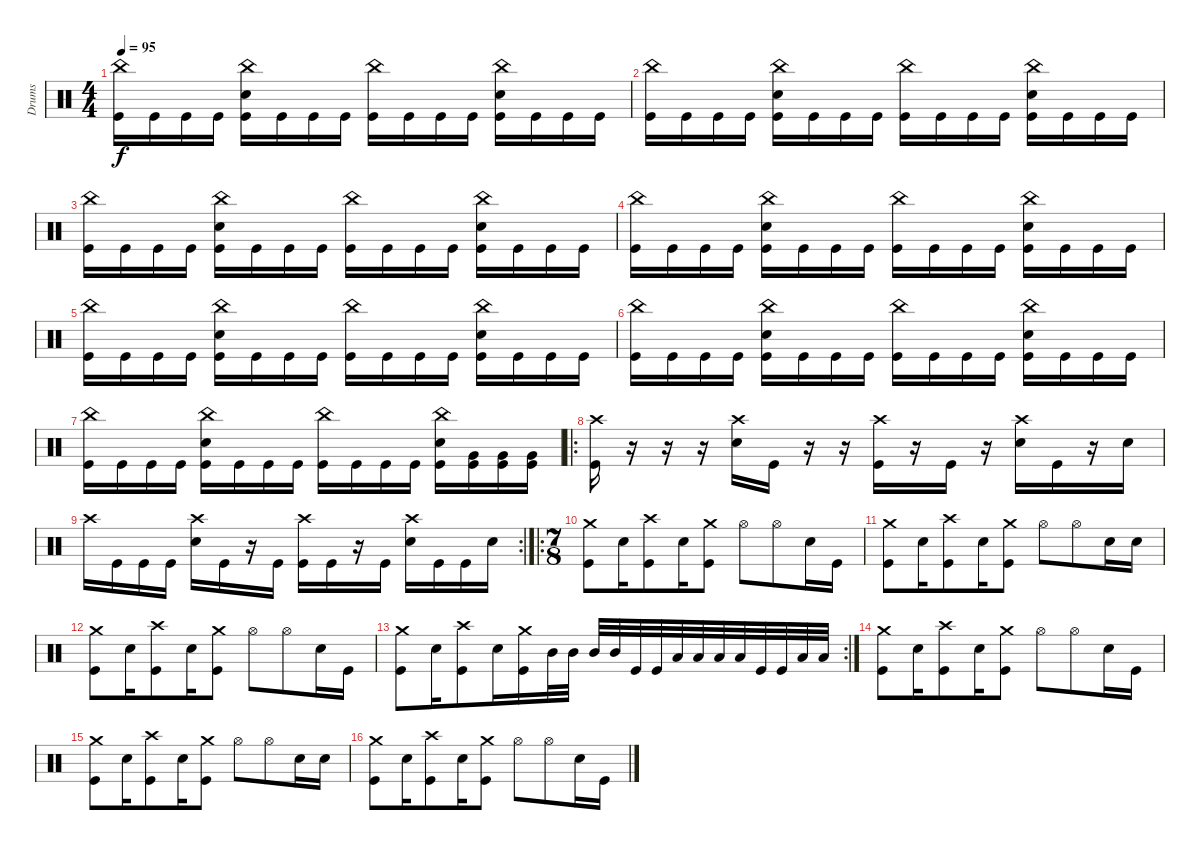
\track ("Drums" "Drums") {instrument percussion}
\staff {score}
\articulation defaults
\ts (4 4)
\tempo 95
\clef neutral
\ks c
("China (hit)" "Kick (hit)").16{dy f} "Kick (hit)".16 "Kick (hit)".16 "Kick (hit)".16 ("China (hit)" "Electric Snare (hit)" "Kick (hit)").16 "Kick (hit)".16 "Kick (hit)".16 "Kick (hit)".16 ("China (hit)" "Kick (hit)").16 "Kick (hit)".16 "Kick (hit)".16 "Kick (hit)".16 ("China (hit)" "Electric Snare (hit)" "Kick (hit)").16 "Kick (hit)".16 "Kick (hit)".16 "Kick (hit)".16 |
("China (hit)" "Kick (hit)").16 "Kick (hit)".16 "Kick (hit)".16 "Kick (hit)".16 ("China (hit)" "Electric Snare (hit)" "Kick (hit)").16 "Kick (hit)".16 "Kick (hit)".16 "Kick (hit)".16 ("China (hit)" "Kick (hit)").16 "Kick (hit)".16 "Kick (hit)".16 "Kick (hit)".16 ("China (hit)" "Electric Snare (hit)" "Kick (hit)").16 "Kick (hit)".16 "Kick (hit)".16 "Kick (hit)".16 |
("China (hit)" "Kick (hit)").16 "Kick (hit)".16 "Kick (hit)".16 "Kick (hit)".16 ("China (hit)" "Electric Snare (hit)" "Kick (hit)").16 "Kick (hit)".16 "Kick (hit)".16 "Kick (hit)".16 ("China (hit)" "Kick (hit)").16 "Kick (hit)".16 "Kick (hit)".16 "Kick (hit)".16 ("China (hit)" "Electric Snare (hit)" "Kick (hit)").16 "Kick (hit)".16 "Kick (hit)".16 "Kick (hit)".16 |
("China (hit)" "Kick (hit)").16 "Kick (hit)".16 "Kick (hit)".16 "Kick (hit)".16 ("China (hit)" "Electric Snare (hit)" "Kick (hit)").16 "Kick (hit)".16 "Kick (hit)".16 "Kick (hit)".16 ("China (hit)" "Kick (hit)").16 "Kick (hit)".16 "Kick (hit)".16 "Kick (hit)".16 ("China (hit)" "Electric Snare (hit)" "Kick (hit)").16 "Kick (hit)".16 "Kick (hit)".16 "Kick (hit)".16 |
("China (hit)" "Kick (hit)").16 "Kick (hit)".16 "Kick (hit)".16 "Kick (hit)".16 ("China (hit)" "Electric Snare (hit)" "Kick (hit)").16 "Kick (hit)".16 "Kick (hit)".16 "Kick (hit)".16 ("China (hit)" "Kick (hit)").16 "Kick (hit)".16 "Kick (hit)".16 "Kick (hit)".16 ("China (hit)" "Electric Snare (hit)" "Kick (hit)").16 "Kick (hit)".16 "Kick (hit)".16 "Kick (hit)".16 |
("China (hit)" "Kick (hit)").16 "Kick (hit)".16 "Kick (hit)".16 "Kick (hit)".16 ("China (hit)" "Electric Snare (hit)" "Kick (hit)").16 "Kick (hit)".16 "Kick (hit)".16 "Kick (hit)".16 ("China (hit)" "Kick (hit)").16 "Kick (hit)".16 "Kick (hit)".16 "Kick (hit)".16 ("China (hit)" "Electric Snare (hit)" "Kick (hit)").16 "Kick (hit)".16 "Kick (hit)".16 "Kick (hit)".16 |
("China (hit)" "Kick (hit)").16 "Kick (hit)".16 "Kick (hit)".16 "Kick (hit)".16 ("China (hit)" "Electric Snare (hit)" "Kick (hit)").16 "Kick (hit)".16 "Kick (hit)".16 "Kick (hit)".16 ("China (hit)" "Kick (hit)").16 "Kick (hit)".16 "Kick (hit)".16 "Kick (hit)".16 ("China (hit)" "Electric Snare (hit)" "Kick (hit)").16 ("Very Low Tom (hit)" "Kick (hit)").16 ("Very Low Tom (hit)" "Kick (hit)").16 ("Very Low Tom (hit)" "Kick (hit)").16 |
\ro
("Crash high (hit)" "Kick (hit)").16 r.16 r.16 r.16 ("Crash high (hit)" "Electric Snare (hit)").16 "Kick (hit)".16 r.16 r.16 ("Crash high (hit)" "Kick (hit)").16 r.16 "Kick (hit)".16 r.16 ("Crash high (hit)" "Electric Snare (hit)").16 "Kick (hit)".16 r.16 "Electric Snare (hit)".16 |
\rc 2 "Crash high (hit)".16 "Kick (hit)".16 "Kick (hit)".16 "Kick (hit)".16
("Crash high (hit)" "Electric Snare (hit)").16 "Kick (hit)".16 r.16 "Kick (hit)".16 ("Crash high (hit)" "Kick (hit)").16 "Kick (hit)".16 r.16 "Kick (hit)".16 ("Crash high (hit)" "Electric Snare (hit)").16 "Kick (hit)".16 "Kick (hit)".16 "Electric Snare (hit)".16 |
\ro
\ts (7 8)
("Crash medium (hit)" "Kick (hit)").8 "Electric Snare (hit)".16 ("Crash high (hit)" "Kick (hit)").8 "Electric Snare (hit)".16 ("Crash medium (hit)" "Kick (hit)").8 "Hi-Hat (open)".8 "Hi-Hat (open)".8 "Electric Snare (hit)".16 "Kick (hit)".16 |
("Crash medium (hit)" "Kick (hit)").8 "Electric Snare (hit)".16 ("Crash high (hit)" "Kick (hit)").8 "Electric Snare (hit)".16 ("Crash medium (hit)" "Kick (hit)").8 "Hi-Hat (open)".8 "Hi-Hat (open)".8 "Electric Snare (hit)".16 "Electric Snare (hit)".16 |
("Crash medium (hit)" "Kick (hit)").8 "Electric Snare (hit)".16 ("Crash high (hit)" "Kick (hit)").8 "Electric Snare (hit)".16 ("Crash medium (hit)" "Kick (hit)").8 "Hi-Hat (open)".8 "Hi-Hat (open)".8 "Electric Snare (hit)".16 "Kick (hit)".16 |
\rc 2
("Crash medium (hit)" "Kick (hit)").8 "Electric Snare (hit)".16 ("Crash high (hit)" "Kick (hit)").8 "Electric Snare (hit)".16 ("Crash medium (hit)" "Kick (hit)").16 "Mid Tom (hit)".32 "Mid Tom (hit)".32 "Mid Tom (hit)".32 "Mid Tom (hit)".32 "Kick (hit)".32 "Kick (hit)".32 "Low Floor Tom (hit)".32 "Low Floor Tom (hit)".32 "Low Floor Tom (hit)".32 "Low Floor Tom (hit)".32 "Kick (hit)".32 "Kick (hit)".32 "Low Floor Tom (hit)".32 "Low Floor Tom (hit)".32 |
("Crash medium (hit)" "Kick (hit)").8 "Electric Snare (hit)".16 ("Crash high (hit)" "Kick (hit)").8 "Electric Snare (hit)".16 ("Crash medium (hit)" "Kick (hit)").8 "Hi-Hat (open)".8 "Hi-Hat (open)".8 "Electric Snare (hit)".16 "Kick (hit)".16 |
("Crash medium (hit)" "Kick (hit)").8 "Electric Snare (hit)".16 ("Crash high (hit)" "Kick (hit)").8 "Electric Snare (hit)".16 ("Crash medium (hit)" "Kick (hit)").8 "Hi-Hat (open)".8 "Hi-Hat (open)".8 "Electric Snare (hit)".16 "Electric Snare (hit)".16 |
("Crash medium (hit)" "Kick (hit)").8 "Electric Snare (hit)".16 ("Crash high (hit)" "Kick (hit)").8 "Electric Snare (hit)".16 ("Crash medium (hit)" "Kick (hit)").8 "Hi-Hat (open)".8 "Hi-Hat (open)".8 "Electric Snare (hit)".16 "Kick (hit)".16
